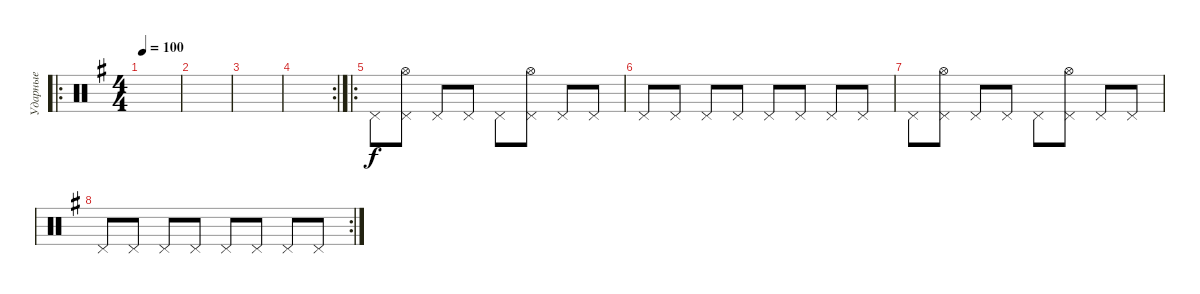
\track ("Ударные" "Ударные") {instrument percussion}
\staff {score}
\articulation defaults
\ro
\ts (4 4)
\tempo 100
\clef neutral
\ks eminor
|
|
|
\rc 2
|
\ro "Pedal Hi-Hat (hit)".8
("Pedal Hi-Hat (hit)" "Hi-Hat (open)").8 "Pedal Hi-Hat (hit)".8 "Pedal Hi-Hat (hit)".8 "Pedal Hi-Hat (hit)".8 ("Pedal Hi-Hat (hit)" "Hi-Hat (open)").8 "Pedal Hi-Hat (hit)".8 "Pedal Hi-Hat (hit)".8 |
"Pedal Hi-Hat (hit)".8 "Pedal Hi-Hat (hit)".8 "Pedal Hi-Hat (hit)".8 "Pedal Hi-Hat (hit)".8 "Pedal Hi-Hat (hit)".8 "Pedal Hi-Hat (hit)".8 "Pedal Hi-Hat (hit)".8 "Pedal Hi-Hat (hit)".8 |
"Pedal Hi-Hat (hit)".8 ("Pedal Hi-Hat (hit)" "Hi-Hat (open)").8 "Pedal Hi-Hat (hit)".8 "Pedal Hi-Hat (hit)".8 "Pedal Hi-Hat (hit)".8 ("Pedal Hi-Hat (hit)" "Hi-Hat (open)").8 "Pedal Hi-Hat (hit)".8 "Pedal Hi-Hat (hit)".8 |
\rc 2 "Pedal Hi-Hat (hit)".8 "Pedal Hi-Hat (hit)".8 "Pedal Hi-Hat (hit)".8 "Pedal Hi-Hat (hit)".8 "Pedal Hi-Hat (hit)".8 "Pedal Hi-Hat (hit)".8 "Pedal Hi-Hat (hit)".8 "Pedal Hi-Hat (hit)".8
